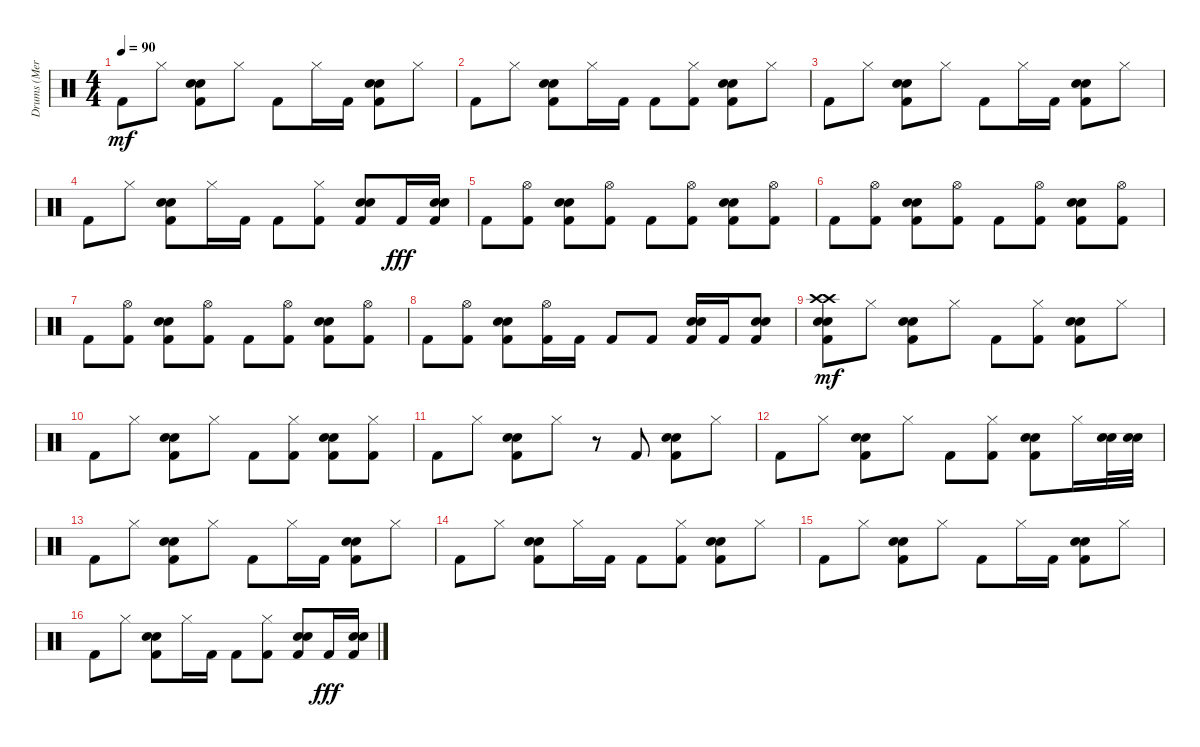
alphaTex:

\track ("Drums (Merlin)" "Drums (Mer") {instrument percussion}
\staff {score}
\articulation defaults
\ts (4 4)
\tempo 90
\clef neutral
\ks c "Kick (hit) 2".8{dy mf} "Hi-Hat (closed)".8
("Electric Snare (hit)" "Snare (hit) 2" "Kick (hit) 2").8 "Hi-Hat (closed)".8 "Kick (hit) 2".8 "Hi-Hat (closed)".16 "Kick (hit) 2".16 ("Electric Snare (hit)" "Snare (hit) 2" "Kick (hit) 2").8 "Hi-Hat (closed)".8 |
"Kick (hit) 2".8 "Hi-Hat (closed)".8 ("Electric Snare (hit)" "Snare (hit) 2" "Kick (hit) 2").8 "Hi-Hat (closed)".16 "Kick (hit) 2".16 "Kick (hit) 2".8 ("Hi-Hat (closed)" "Kick (hit) 2").8 ("Electric Snare (hit)" "Snare (hit) 2" "Kick (hit) 2").8 "Hi-Hat (closed)".8 |
"Kick (hit) 2".8 "Hi-Hat (closed)".8 ("Electric Snare (hit)" "Snare (hit) 2" "Kick (hit) 2").8 "Hi-Hat (closed)".8 "Kick (hit) 2".8 "Hi-Hat (closed)".16 "Kick (hit) 2".16 ("Electric Snare (hit)" "Snare (hit) 2" "Kick (hit) 2").8 "Hi-Hat (closed)".8 |
"Kick (hit) 2".8 "Hi-Hat (closed)".8 ("Electric Snare (hit)" "Snare (hit) 2" "Kick (hit) 2").8 "Hi-Hat (closed)".16 "Kick (hit) 2".16 "Kick (hit) 2".8 ("Hi-Hat (closed)" "Kick (hit) 2").8 ("Electric Snare (hit)" "Snare (hit) 2" "Kick (hit) 2").8 "Kick (hit) 2".16{dy fff} ("Electric Snare (hit)" "Snare (hit) 2" "Kick (hit) 2").16 |
"Kick (hit) 2".8 ("Hi-Hat (open)" "Kick (hit) 2").8 ("Electric Snare (hit)" "Snare (hit) 2" "Kick (hit) 2").8 ("Hi-Hat (open)" "Kick (hit) 2").8 "Kick (hit) 2".8 ("Hi-Hat (open)" "Kick (hit) 2").8 ("Electric Snare (hit)" "Snare (hit) 2" "Kick (hit) 2").8 ("Hi-Hat (open)" "Kick (hit) 2").8 |
"Kick (hit) 2".8 ("Hi-Hat (open)" "Kick (hit) 2").8 ("Electric Snare (hit)" "Snare (hit) 2" "Kick (hit) 2").8 ("Hi-Hat (open)" "Kick (hit) 2").8 "Kick (hit) 2".8 ("Hi-Hat (open)" "Kick (hit) 2").8 ("Electric Snare (hit)" "Snare (hit) 2" "Kick (hit) 2").8 ("Hi-Hat (open)" "Kick (hit) 2").8 |
"Kick (hit) 2".8 ("Hi-Hat (open)" "Kick (hit) 2").8 ("Electric Snare (hit)" "Snare (hit) 2" "Kick (hit) 2").8 ("Hi-Hat (open)" "Kick (hit) 2").8 "Kick (hit) 2".8 ("Hi-Hat (open)" "Kick (hit) 2").8 ("Electric Snare (hit)" "Snare (hit) 2" "Kick (hit) 2").8 ("Hi-Hat (open)" "Kick (hit) 2").8 |
"Kick (hit) 2".8 ("Hi-Hat (open)" "Kick (hit) 2").8 ("Electric Snare (hit)" "Snare (hit) 2" "Kick (hit) 2").8 ("Hi-Hat (open)" "Kick (hit) 2").16 "Kick (hit) 2".16 "Kick (hit) 2".8 "Kick (hit) 2".8 ("Electric Snare (hit)" "Snare (hit) 2" "Kick (hit) 2").16 "Kick (hit) 2".16 ("Electric Snare (hit)" "Snare (hit) 2" "Kick (hit) 2").8 |
("Crash high (hit)" "Crash high (hit)" "Electric Snare (hit)" "Snare (hit) 2" "Kick (hit) 2").8{dy mf} "Hi-Hat (closed)".8 ("Electric Snare (hit)" "Snare (hit) 2" "Kick (hit) 2").8 "Hi-Hat (closed)".8 "Kick (hit) 2".8 ("Hi-Hat (closed)" "Kick (hit) 2").8 ("Electric Snare (hit)" "Snare (hit) 2" "Kick (hit) 2").8 "Hi-Hat (closed)".8 |
"Kick (hit) 2".8 "Hi-Hat (closed)".8 ("Electric Snare (hit)" "Snare (hit) 2" "Kick (hit) 2").8 "Hi-Hat (closed)".8 "Kick (hit) 2".8 ("Hi-Hat (closed)" "Kick (hit) 2").8 ("Electric Snare (hit)" "Snare (hit) 2" "Kick (hit) 2").8 ("Hi-Hat (closed)" "Kick (hit) 2").8 |
"Kick (hit) 2".8 "Hi-Hat (closed)".8 ("Electric Snare (hit)" "Snare (hit) 2" "Kick (hit) 2").8 "Hi-Hat (closed)".8 r.8 "Kick (hit) 2".8 ("Electric Snare (hit)" "Snare (hit) 2" "Kick (hit) 2").8 "Hi-Hat (closed)".8 |
"Kick (hit) 2".8 "Hi-Hat (closed)".8 ("Electric Snare (hit)" "Snare (hit) 2" "Kick (hit) 2").8 "Hi-Hat (closed)".8 "Kick (hit) 2".8 ("Hi-Hat (closed)" "Kick (hit) 2").8 ("Electric Snare (hit)" "Snare (hit) 2" "Kick (hit) 2").8 "Hi-Hat (closed)".16 ("Electric Snare (hit)" "Snare (hit) 2").32 ("Electric Snare (hit)" "Snare (hit) 2").32 |
"Kick (hit) 2".8 "Hi-Hat (closed)".8 ("Electric Snare (hit)" "Snare (hit) 2" "Kick (hit) 2").8 "Hi-Hat (closed)".8 "Kick (hit) 2".8 "Hi-Hat (closed)".16 "Kick (hit) 2".16 ("Electric Snare (hit)" "Snare (hit) 2" "Kick (hit) 2").8 "Hi-Hat (closed)".8 |
"Kick (hit) 2".8 "Hi-Hat (closed)".8 ("Electric Snare (hit)" "Snare (hit) 2" "Kick (hit) 2").8 "Hi-Hat (closed)".16 "Kick (hit) 2".16 "Kick (hit) 2".8 ("Hi-Hat (closed)" "Kick (hit) 2").8 ("Electric Snare (hit)" "Snare (hit) 2" "Kick (hit) 2").8 "Hi-Hat (closed)".8 |
"Kick (hit) 2".8 "Hi-Hat (closed)".8 ("Electric Snare (hit)" "Snare (hit) 2" "Kick (hit) 2").8 "Hi-Hat (closed)".8 "Kick (hit) 2".8 "Hi-Hat (closed)".16 "Kick (hit) 2".16 ("Electric Snare (hit)" "Snare (hit) 2" "Kick (hit) 2").8 "Hi-Hat (closed)".8 |
"Kick (hit) 2".8 "Hi-Hat (closed)".8 ("Electric Snare (hit)" "Snare (hit) 2" "Kick (hit) 2").8 "Hi-Hat (closed)".16 "Kick (hit) 2".16 "Kick (hit) 2".8 ("Hi-Hat (closed)" "Kick (hit) 2").8 ("Electric Snare (hit)" "Snare (hit) 2" "Kick (hit) 2").8 "Kick (hit) 2".16{dy fff} ("Electric Snare (hit)" "Snare (hit) 2" "Kick (hit) 2").16
